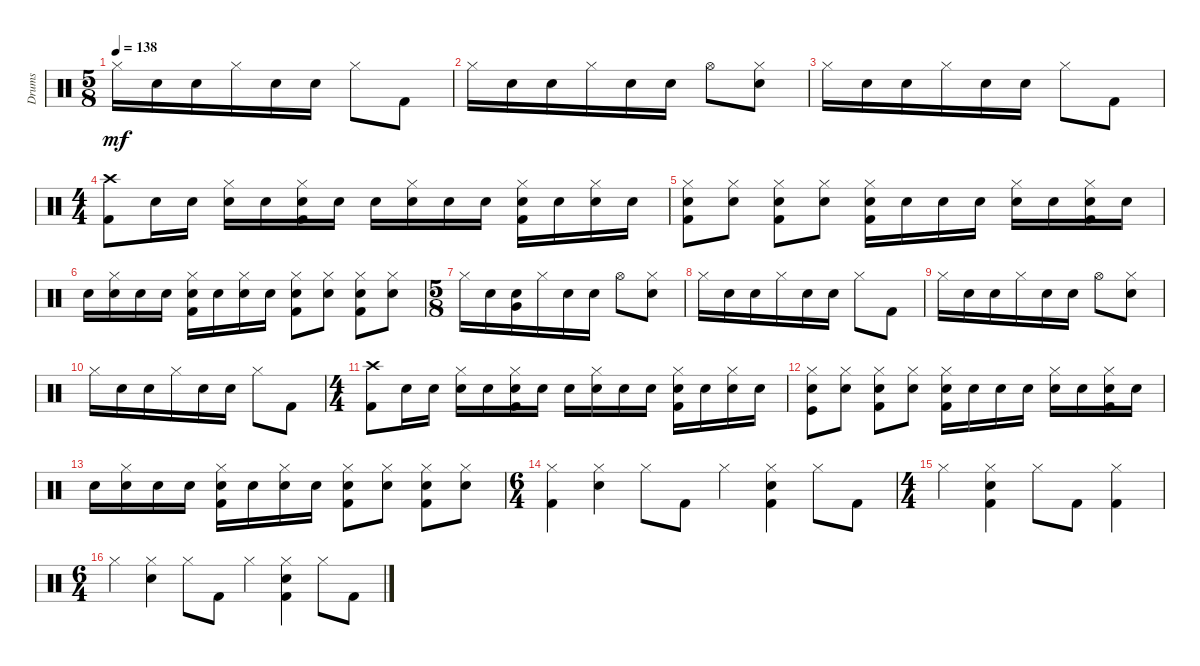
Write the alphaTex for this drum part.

\track ("Drums" "Drums") {instrument percussion}
\staff {score}
\articulation defaults
\ts (5 8)
\tempo 138
\clef neutral
\ks c "Hi-Hat (closed)".16{dy mf} "Snare (hit) 2".16 "Snare (hit) 2".16 "Hi-Hat (closed)".16 "Snare (hit) 2".16 "Snare (hit) 2".16 "Hi-Hat (closed)".8 "Kick (hit) 2".8
|
"Hi-Hat (closed)".16 "Snare (hit) 2".16 "Snare (hit) 2".16 "Hi-Hat (closed)".16 "Snare (hit) 2".16 "Snare (hit) 2".16 "Hi-Hat (open)".8 ("Snare (hit) 2" "Hi-Hat (closed)").8 |
"Hi-Hat (closed)".16 "Snare (hit) 2".16 "Snare (hit) 2".16 "Hi-Hat (closed)".16 "Snare (hit) 2".16 "Snare (hit) 2".16 "Hi-Hat (closed)".8 "Kick (hit) 2".8 |
\ts (4 4)
("Kick (hit) 2" "Crash high (hit)").8 "Electric Snare (hit)".16 "Electric Snare (hit)".16 ("Electric Snare (hit)" "Hi-Hat (closed)").16 "Electric Snare (hit)".16 ("Kick (hit) 2" "Electric Snare (hit)" "Hi-Hat (closed)").16 "Electric Snare (hit)".16 "Electric Snare (hit)".16 ("Electric Snare (hit)" "Hi-Hat (closed)").16 "Electric Snare (hit)".16 "Electric Snare (hit)".16 ("Kick (hit) 2" "Electric Snare (hit)" "Hi-Hat (closed)").16 "Electric Snare (hit)".16 ("Electric Snare (hit)" "Hi-Hat (closed)").16 "Electric Snare (hit)".16 |
("Kick (hit) 2" "Electric Snare (hit)" "Hi-Hat (closed)").8 ("Electric Snare (hit)" "Hi-Hat (closed)").8 ("Kick (hit) 2" "Electric Snare (hit)" "Hi-Hat (closed)").8 ("Electric Snare (hit)" "Hi-Hat (closed)").8 ("Kick (hit) 2" "Electric Snare (hit)" "Hi-Hat (closed)").16 "Electric Snare (hit)".16 "Electric Snare (hit)".16 "Electric Snare (hit)".16 ("Electric Snare (hit)" "Hi-Hat (closed)").16 "Electric Snare (hit)".16 ("Kick (hit) 2" "Electric Snare (hit)" "Hi-Hat (closed)").16 "Electric Snare (hit)".16 |
"Electric Snare (hit)".16 ("Electric Snare (hit)" "Hi-Hat (closed)").16 "Electric Snare (hit)".16 "Electric Snare (hit)".16 ("Kick (hit) 2" "Electric Snare (hit)" "Hi-Hat (closed)").16 "Electric Snare (hit)".16 ("Electric Snare (hit)" "Hi-Hat (closed)").16 "Electric Snare (hit)".16 ("Kick (hit) 2" "Electric Snare (hit)" "Hi-Hat (closed)").8 ("Electric Snare (hit)" "Hi-Hat (closed)").8 ("Kick (hit) 2" "Electric Snare (hit)" "Hi-Hat (closed)").8 ("Electric Snare (hit)" "Hi-Hat (closed)").8 |
\ts (5 8)
"Hi-Hat (closed)".16 "Snare (hit) 2".16 ("Snare (hit) 2" "Very Low Tom (hit)").16 "Hi-Hat (closed)".16 "Snare (hit) 2".16 "Snare (hit) 2".16 "Hi-Hat (open)".8 ("Snare (hit) 2" "Hi-Hat (closed)").8 |
"Hi-Hat (closed)".16 "Snare (hit) 2".16 "Snare (hit) 2".16 "Hi-Hat (closed)".16 "Snare (hit) 2".16 "Snare (hit) 2".16 "Hi-Hat (closed)".8 "Kick (hit) 2".8 |
"Hi-Hat (closed)".16 "Snare (hit) 2".16 "Snare (hit) 2".16 "Hi-Hat (closed)".16 "Snare (hit) 2".16 "Snare (hit) 2".16 "Hi-Hat (open)".8 ("Snare (hit) 2" "Hi-Hat (closed)").8 |
"Hi-Hat (closed)".16 "Snare (hit) 2".16 "Snare (hit) 2".16 "Hi-Hat (closed)".16 "Snare (hit) 2".16 "Snare (hit) 2".16 "Hi-Hat (closed)".8 "Kick (hit) 2".8 |
\ts (4 4)
("Kick (hit) 2" "Crash high (hit)").8 "Electric Snare (hit)".16 "Electric Snare (hit)".16 ("Electric Snare (hit)" "Hi-Hat (closed)").16 "Electric Snare (hit)".16 ("Kick (hit) 2" "Electric Snare (hit)" "Hi-Hat (closed)").16 "Electric Snare (hit)".16 "Electric Snare (hit)".16 ("Electric Snare (hit)" "Hi-Hat (closed)").16 "Electric Snare (hit)".16 "Electric Snare (hit)".16 ("Kick (hit) 2" "Electric Snare (hit)" "Hi-Hat (closed)").16 "Electric Snare (hit)".16 ("Electric Snare (hit)" "Hi-Hat (closed)").16 "Electric Snare (hit)".16 |
("Kick (hit)" "Electric Snare (hit)" "Hi-Hat (closed)").8 ("Electric Snare (hit)" "Hi-Hat (closed)").8 ("Kick (hit) 2" "Electric Snare (hit)" "Hi-Hat (closed)").8 ("Electric Snare (hit)" "Hi-Hat (closed)").8 ("Kick (hit) 2" "Electric Snare (hit)" "Hi-Hat (closed)").16 "Electric Snare (hit)".16 "Electric Snare (hit)".16 "Electric Snare (hit)".16 ("Electric Snare (hit)" "Hi-Hat (closed)").16 "Electric Snare (hit)".16 ("Kick (hit) 2" "Electric Snare (hit)" "Hi-Hat (closed)").16 "Electric Snare (hit)".16 |
"Electric Snare (hit)".16 ("Electric Snare (hit)" "Hi-Hat (closed)").16 "Electric Snare (hit)".16 "Electric Snare (hit)".16 ("Kick (hit) 2" "Electric Snare (hit)" "Hi-Hat (closed)").16 "Electric Snare (hit)".16 ("Electric Snare (hit)" "Hi-Hat (closed)").16 "Electric Snare (hit)".16 ("Kick (hit) 2" "Electric Snare (hit)" "Hi-Hat (closed)").8 ("Electric Snare (hit)" "Hi-Hat (closed)").8 ("Kick (hit) 2" "Electric Snare (hit)" "Hi-Hat (closed)").8 ("Electric Snare (hit)" "Hi-Hat (closed)").8 |
\ts (6 4)
("Kick (hit) 2" "Hi-Hat (closed)").4 ("Snare (hit) 2" "Hi-Hat (closed)").4 "Hi-Hat (closed)".8 "Kick (hit) 2".8 "Hi-Hat (closed)".4 ("Kick (hit) 2" "Snare (hit) 2" "Hi-Hat (closed)").4 "Hi-Hat (closed)".8 "Kick (hit) 2".8 |
\ts (4 4)
"Hi-Hat (closed)".4 ("Kick (hit) 2" "Snare (hit) 2" "Hi-Hat (closed)").4 "Hi-Hat (closed)".8 "Kick (hit) 2".8 ("Kick (hit) 2" "Hi-Hat (closed)").4 |
\ts (6 4)
"Hi-Hat (closed)".4 ("Snare (hit) 2" "Hi-Hat (closed)").4 "Hi-Hat (closed)".8 "Kick (hit) 2".8 "Hi-Hat (closed)".4 ("Kick (hit) 2" "Snare (hit) 2" "Hi-Hat (closed)").4 "Hi-Hat (closed)".8 "Kick (hit) 2".8
